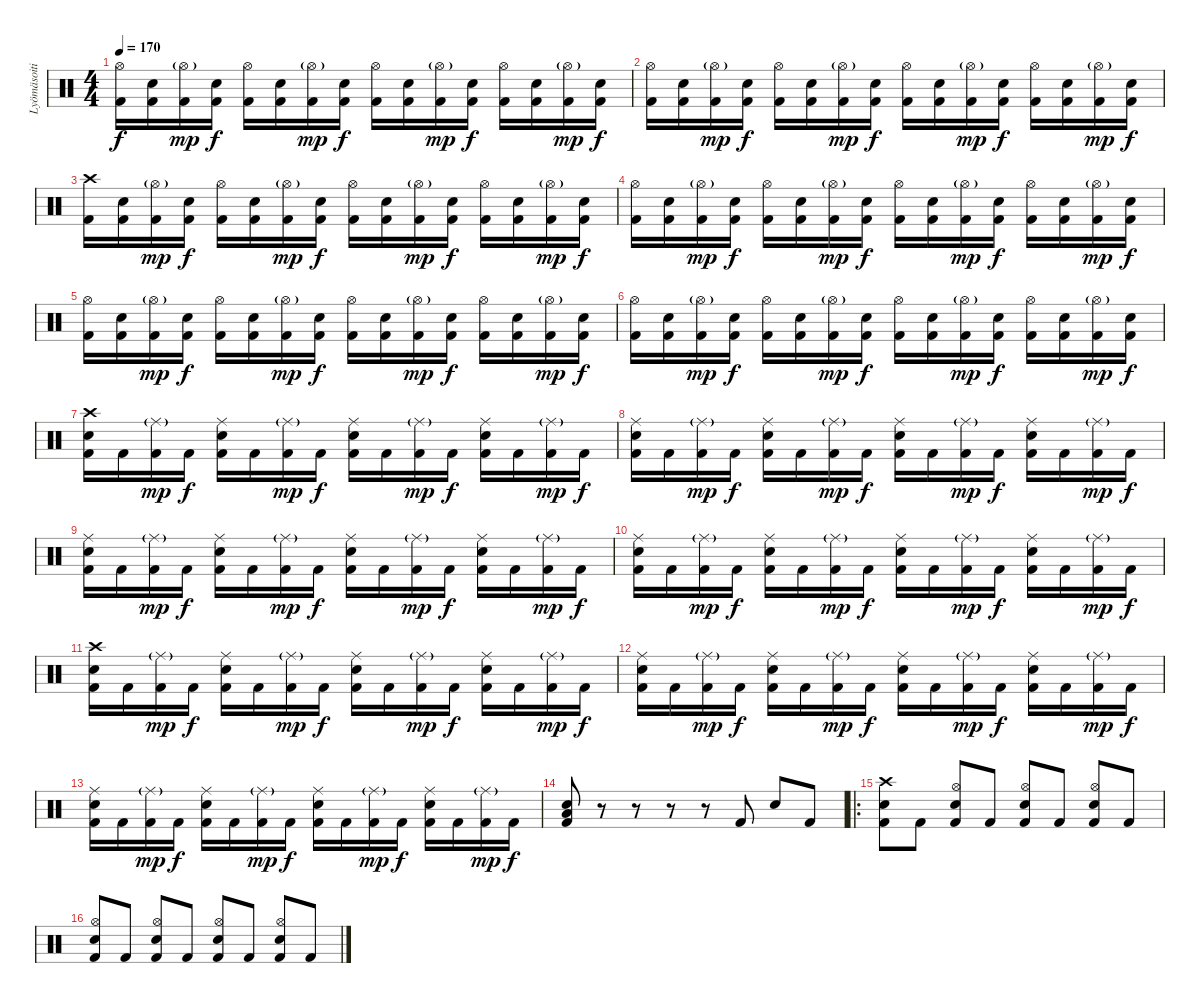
\track ("Lyömäsoitin" "Lyömäsoiti") {instrument percussion}
\staff {score}
\articulation defaults
\ts (4 4)
\tempo 170
\clef neutral
\ks c
("Kick (hit) 2" "Hi-Hat (open)").16{dy f} ("Kick (hit) 2" "Electric Snare (hit)").16 ("Kick (hit) 2" "Hi-Hat (open)"{g}).16{dy mp} ("Kick (hit) 2" "Electric Snare (hit)").16{dy f} ("Kick (hit) 2" "Hi-Hat (open)").16 ("Kick (hit) 2" "Electric Snare (hit)").16 ("Kick (hit) 2" "Hi-Hat (open)"{g}).16{dy mp} ("Kick (hit) 2" "Electric Snare (hit)").16{dy f} ("Kick (hit) 2" "Hi-Hat (open)").16 ("Kick (hit) 2" "Electric Snare (hit)").16 ("Kick (hit) 2" "Hi-Hat (open)"{g}).16{dy mp} ("Kick (hit) 2" "Electric Snare (hit)").16{dy f} ("Kick (hit) 2" "Hi-Hat (open)").16 ("Kick (hit) 2" "Electric Snare (hit)").16 ("Kick (hit) 2" "Hi-Hat (open)"{g}).16{dy mp} ("Kick (hit) 2" "Electric Snare (hit)").16{dy f} |
("Kick (hit) 2" "Hi-Hat (open)").16 ("Kick (hit) 2" "Electric Snare (hit)").16 ("Kick (hit) 2" "Hi-Hat (open)"{g}).16{dy mp} ("Kick (hit) 2" "Electric Snare (hit)").16{dy f} ("Kick (hit) 2" "Hi-Hat (open)").16 ("Kick (hit) 2" "Electric Snare (hit)").16 ("Kick (hit) 2" "Hi-Hat (open)"{g}).16{dy mp} ("Kick (hit) 2" "Electric Snare (hit)").16{dy f} ("Kick (hit) 2" "Hi-Hat (open)").16 ("Kick (hit) 2" "Electric Snare (hit)").16 ("Kick (hit) 2" "Hi-Hat (open)"{g}).16{dy mp} ("Kick (hit) 2" "Electric Snare (hit)").16{dy f} ("Kick (hit) 2" "Hi-Hat (open)").16 ("Kick (hit) 2" "Electric Snare (hit)").16 ("Kick (hit) 2" "Hi-Hat (open)"{g}).16{dy mp} ("Kick (hit) 2" "Electric Snare (hit)").16{dy f} |
("Kick (hit) 2" "Crash high (hit)").16 ("Kick (hit) 2" "Electric Snare (hit)").16 ("Kick (hit) 2" "Hi-Hat (open)"{g}).16{dy mp} ("Kick (hit) 2" "Electric Snare (hit)").16{dy f} ("Kick (hit) 2" "Hi-Hat (open)").16 ("Kick (hit) 2" "Electric Snare (hit)").16 ("Kick (hit) 2" "Hi-Hat (open)"{g}).16{dy mp} ("Kick (hit) 2" "Electric Snare (hit)").16{dy f} ("Kick (hit) 2" "Hi-Hat (open)").16 ("Kick (hit) 2" "Electric Snare (hit)").16 ("Kick (hit) 2" "Hi-Hat (open)"{g}).16{dy mp} ("Kick (hit) 2" "Electric Snare (hit)").16{dy f} ("Kick (hit) 2" "Hi-Hat (open)").16 ("Kick (hit) 2" "Electric Snare (hit)").16 ("Kick (hit) 2" "Hi-Hat (open)"{g}).16{dy mp} ("Kick (hit) 2" "Electric Snare (hit)").16{dy f} |
("Kick (hit) 2" "Hi-Hat (open)").16 ("Kick (hit) 2" "Electric Snare (hit)").16 ("Kick (hit) 2" "Hi-Hat (open)"{g}).16{dy mp} ("Kick (hit) 2" "Electric Snare (hit)").16{dy f} ("Kick (hit) 2" "Hi-Hat (open)").16 ("Kick (hit) 2" "Electric Snare (hit)").16 ("Kick (hit) 2" "Hi-Hat (open)"{g}).16{dy mp} ("Kick (hit) 2" "Electric Snare (hit)").16{dy f} ("Kick (hit) 2" "Hi-Hat (open)").16 ("Kick (hit) 2" "Electric Snare (hit)").16 ("Kick (hit) 2" "Hi-Hat (open)"{g}).16{dy mp} ("Kick (hit) 2" "Electric Snare (hit)").16{dy f} ("Kick (hit) 2" "Hi-Hat (open)").16 ("Kick (hit) 2" "Electric Snare (hit)").16 ("Kick (hit) 2" "Hi-Hat (open)"{g}).16{dy mp} ("Kick (hit) 2" "Electric Snare (hit)").16{dy f} |
("Kick (hit) 2" "Hi-Hat (open)").16 ("Kick (hit) 2" "Electric Snare (hit)").16 ("Kick (hit) 2" "Hi-Hat (open)"{g}).16{dy mp} ("Kick (hit) 2" "Electric Snare (hit)").16{dy f} ("Kick (hit) 2" "Hi-Hat (open)").16 ("Kick (hit) 2" "Electric Snare (hit)").16 ("Kick (hit) 2" "Hi-Hat (open)"{g}).16{dy mp} ("Kick (hit) 2" "Electric Snare (hit)").16{dy f} ("Kick (hit) 2" "Hi-Hat (open)").16 ("Kick (hit) 2" "Electric Snare (hit)").16 ("Kick (hit) 2" "Hi-Hat (open)"{g}).16{dy mp} ("Kick (hit) 2" "Electric Snare (hit)").16{dy f} ("Kick (hit) 2" "Hi-Hat (open)").16 ("Kick (hit) 2" "Electric Snare (hit)").16 ("Kick (hit) 2" "Hi-Hat (open)"{g}).16{dy mp} ("Kick (hit) 2" "Electric Snare (hit)").16{dy f} |
("Kick (hit) 2" "Hi-Hat (open)").16 ("Kick (hit) 2" "Electric Snare (hit)").16 ("Kick (hit) 2" "Hi-Hat (open)"{g}).16{dy mp} ("Kick (hit) 2" "Electric Snare (hit)").16{dy f} ("Kick (hit) 2" "Hi-Hat (open)").16 ("Kick (hit) 2" "Electric Snare (hit)").16 ("Kick (hit) 2" "Hi-Hat (open)"{g}).16{dy mp} ("Kick (hit) 2" "Electric Snare (hit)").16{dy f} ("Kick (hit) 2" "Hi-Hat (open)").16 ("Kick (hit) 2" "Electric Snare (hit)").16 ("Kick (hit) 2" "Hi-Hat (open)"{g}).16{dy mp} ("Kick (hit) 2" "Electric Snare (hit)").16{dy f} ("Kick (hit) 2" "Hi-Hat (open)").16 ("Kick (hit) 2" "Electric Snare (hit)").16 ("Kick (hit) 2" "Hi-Hat (open)"{g}).16{dy mp} ("Kick (hit) 2" "Electric Snare (hit)").16{dy f} |
("Kick (hit) 2" "Electric Snare (hit)" "Crash high (hit)").16 "Kick (hit) 2".16 ("Kick (hit) 2" "Ride (middle)"{g}).16{dy mp} "Kick (hit) 2".16{dy f} ("Kick (hit) 2" "Electric Snare (hit)" "Ride (middle)").16 "Kick (hit) 2".16 ("Kick (hit) 2" "Ride (middle)"{g}).16{dy mp} "Kick (hit) 2".16{dy f} ("Kick (hit) 2" "Electric Snare (hit)" "Ride (middle)").16 "Kick (hit) 2".16 ("Kick (hit) 2" "Ride (middle)"{g}).16{dy mp} "Kick (hit) 2".16{dy f} ("Kick (hit) 2" "Electric Snare (hit)" "Ride (middle)").16 "Kick (hit) 2".16 ("Kick (hit) 2" "Ride (middle)"{g}).16{dy mp} "Kick (hit) 2".16{dy f} |
("Kick (hit) 2" "Electric Snare (hit)" "Ride (middle)").16 "Kick (hit) 2".16 ("Kick (hit) 2" "Ride (middle)"{g}).16{dy mp} "Kick (hit) 2".16{dy f} ("Kick (hit) 2" "Electric Snare (hit)" "Ride (middle)").16 "Kick (hit) 2".16 ("Kick (hit) 2" "Ride (middle)"{g}).16{dy mp} "Kick (hit) 2".16{dy f} ("Kick (hit) 2" "Electric Snare (hit)" "Ride (middle)").16 "Kick (hit) 2".16 ("Kick (hit) 2" "Ride (middle)"{g}).16{dy mp} "Kick (hit) 2".16{dy f} ("Kick (hit) 2" "Electric Snare (hit)" "Ride (middle)").16 "Kick (hit) 2".16 ("Kick (hit) 2" "Ride (middle)"{g}).16{dy mp} "Kick (hit) 2".16{dy f} |
("Kick (hit) 2" "Electric Snare (hit)" "Ride (middle)").16 "Kick (hit) 2".16 ("Kick (hit) 2" "Ride (middle)"{g}).16{dy mp} "Kick (hit) 2".16{dy f} ("Kick (hit) 2" "Electric Snare (hit)" "Ride (middle)").16 "Kick (hit) 2".16 ("Kick (hit) 2" "Ride (middle)"{g}).16{dy mp} "Kick (hit) 2".16{dy f} ("Kick (hit) 2" "Electric Snare (hit)" "Ride (middle)").16 "Kick (hit) 2".16 ("Kick (hit) 2" "Ride (middle)"{g}).16{dy mp} "Kick (hit) 2".16{dy f} ("Kick (hit) 2" "Electric Snare (hit)" "Ride (middle)").16 "Kick (hit) 2".16 ("Kick (hit) 2" "Ride (middle)"{g}).16{dy mp} "Kick (hit) 2".16{dy f} |
("Kick (hit) 2" "Electric Snare (hit)" "Ride (middle)").16 "Kick (hit) 2".16 ("Kick (hit) 2" "Ride (middle)"{g}).16{dy mp} "Kick (hit) 2".16{dy f} ("Kick (hit) 2" "Electric Snare (hit)" "Ride (middle)").16 "Kick (hit) 2".16 ("Kick (hit) 2" "Ride (middle)"{g}).16{dy mp} "Kick (hit) 2".16{dy f} ("Kick (hit) 2" "Electric Snare (hit)" "Ride (middle)").16 "Kick (hit) 2".16 ("Kick (hit) 2" "Ride (middle)"{g}).16{dy mp} "Kick (hit) 2".16{dy f} ("Kick (hit) 2" "Electric Snare (hit)" "Ride (middle)").16 "Kick (hit) 2".16 ("Kick (hit) 2" "Ride (middle)"{g}).16{dy mp} "Kick (hit) 2".16{dy f} |
("Kick (hit) 2" "Electric Snare (hit)" "Crash high (hit)").16 "Kick (hit) 2".16 ("Kick (hit) 2" "Ride (middle)"{g}).16{dy mp} "Kick (hit) 2".16{dy f} ("Kick (hit) 2" "Electric Snare (hit)" "Ride (middle)").16 "Kick (hit) 2".16 ("Kick (hit) 2" "Ride (middle)"{g}).16{dy mp} "Kick (hit) 2".16{dy f} ("Kick (hit) 2" "Electric Snare (hit)" "Ride (middle)").16 "Kick (hit) 2".16 ("Kick (hit) 2" "Ride (middle)"{g}).16{dy mp} "Kick (hit) 2".16{dy f} ("Kick (hit) 2" "Electric Snare (hit)" "Ride (middle)").16 "Kick (hit) 2".16 ("Kick (hit) 2" "Ride (middle)"{g}).16{dy mp} "Kick (hit) 2".16{dy f} |
("Kick (hit) 2" "Electric Snare (hit)" "Ride (middle)").16 "Kick (hit) 2".16 ("Kick (hit) 2" "Ride (middle)"{g}).16{dy mp} "Kick (hit) 2".16{dy f} ("Kick (hit) 2" "Electric Snare (hit)" "Ride (middle)").16 "Kick (hit) 2".16 ("Kick (hit) 2" "Ride (middle)"{g}).16{dy mp} "Kick (hit) 2".16{dy f} ("Kick (hit) 2" "Electric Snare (hit)" "Ride (middle)").16 "Kick (hit) 2".16 ("Kick (hit) 2" "Ride (middle)"{g}).16{dy mp} "Kick (hit) 2".16{dy f} ("Kick (hit) 2" "Electric Snare (hit)" "Ride (middle)").16 "Kick (hit) 2".16 ("Kick (hit) 2" "Ride (middle)"{g}).16{dy mp} "Kick (hit) 2".16{dy f} |
("Kick (hit) 2" "Electric Snare (hit)" "Ride (middle)").16 "Kick (hit) 2".16 ("Kick (hit) 2" "Ride (middle)"{g}).16{dy mp} "Kick (hit) 2".16{dy f} ("Kick (hit) 2" "Electric Snare (hit)" "Ride (middle)").16 "Kick (hit) 2".16 ("Kick (hit) 2" "Ride (middle)"{g}).16{dy mp} "Kick (hit) 2".16{dy f} ("Kick (hit) 2" "Electric Snare (hit)" "Ride (middle)").16 "Kick (hit) 2".16 ("Kick (hit) 2" "Ride (middle)"{g}).16{dy mp} "Kick (hit) 2".16{dy f} ("Kick (hit) 2" "Electric Snare (hit)" "Ride (middle)").16 "Kick (hit) 2".16 ("Kick (hit) 2" "Ride (middle)"{g}).16{dy mp} "Kick (hit) 2".16{dy f} |
("Kick (hit) 2" "Electric Snare (hit)" "Low Tom (hit)").8 r.8 r.8 r.8 r.8 "Kick (hit) 2".8 "Electric Snare (hit)".8 "Kick (hit) 2".8 |
\ro
("Kick (hit) 2" "Electric Snare (hit)" "Crash high (hit)").8 "Kick (hit) 2".8 ("Kick (hit) 2" "Electric Snare (hit)" "Hi-Hat (open)").8 "Kick (hit) 2".8 ("Kick (hit) 2" "Electric Snare (hit)" "Hi-Hat (open)").8 "Kick (hit) 2".8 ("Kick (hit) 2" "Electric Snare (hit)" "Hi-Hat (open)").8 "Kick (hit) 2".8 |
("Kick (hit) 2" "Electric Snare (hit)" "Hi-Hat (open)").8 "Kick (hit) 2".8 ("Kick (hit) 2" "Electric Snare (hit)" "Hi-Hat (open)").8 "Kick (hit) 2".8 ("Kick (hit) 2" "Electric Snare (hit)" "Hi-Hat (open)").8 "Kick (hit) 2".8 ("Kick (hit) 2" "Electric Snare (hit)" "Hi-Hat (open)").8 "Kick (hit) 2".8
